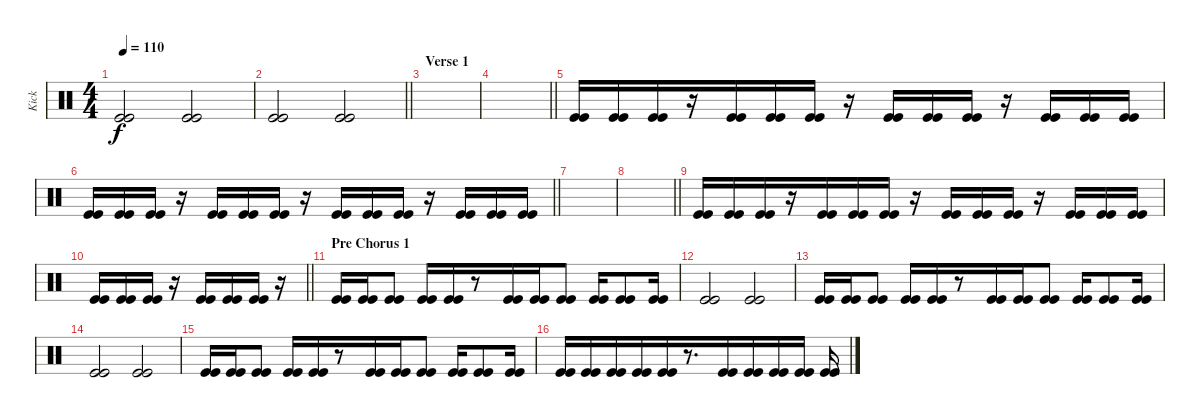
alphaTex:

\track ("Kick" "Kick") {instrument percussion}
\staff {score}
\articulation defaults
\ts (4 4)
\tempo 110
\clef neutral
\ks c
("Kick (hit)" "Kick (hit)").2{dy f beam merge} ("Kick (hit)" "Kick (hit)").2 |
\barLineRight lightlight
("Kick (hit)" "Kick (hit)").2{beam merge} ("Kick (hit)" "Kick (hit)").2 |
\section ("" "Verse 1")
|
\barLineRight lightlight
|
("Kick (hit)" "Kick (hit)").16 ("Kick (hit)" "Kick (hit)").16 ("Kick (hit)" "Kick (hit)").16{beam merge} r.16 ("Kick (hit)" "Kick (hit)").16 ("Kick (hit)" "Kick (hit)").16 ("Kick (hit)" "Kick (hit)").16 r.16 ("Kick (hit)" "Kick (hit)").16{beam merge} ("Kick (hit)" "Kick (hit)").16 ("Kick (hit)" "Kick (hit)").16 r.16{beam merge} ("Kick (hit)" "Kick (hit)").16{beam merge} ("Kick (hit)" "Kick (hit)").16 ("Kick (hit)" "Kick (hit)").16 |
\barLineRight lightlight
("Kick (hit)" "Kick (hit)").16{beam merge} ("Kick (hit)" "Kick (hit)").16{beam merge} ("Kick (hit)" "Kick (hit)").16 r.16 ("Kick (hit)" "Kick (hit)").16 ("Kick (hit)" "Kick (hit)").16{beam merge} ("Kick (hit)" "Kick (hit)").16 r.16 ("Kick (hit)" "Kick (hit)").16 ("Kick (hit)" "Kick (hit)").16{beam merge} ("Kick (hit)" "Kick (hit)").16 r.16 ("Kick (hit)" "Kick (hit)").16 ("Kick (hit)" "Kick (hit)").16{beam merge} ("Kick (hit)" "Kick (hit)").16 |
|
\barLineRight lightlight
|
("Kick (hit)" "Kick (hit)").16 ("Kick (hit)" "Kick (hit)").16 ("Kick (hit)" "Kick (hit)").16{beam merge} r.16 ("Kick (hit)" "Kick (hit)").16 ("Kick (hit)" "Kick (hit)").16 ("Kick (hit)" "Kick (hit)").16 r.16 ("Kick (hit)" "Kick (hit)").16{beam merge} ("Kick (hit)" "Kick (hit)").16 ("Kick (hit)" "Kick (hit)").16 r.16{beam merge} ("Kick (hit)" "Kick (hit)").16{beam merge} ("Kick (hit)" "Kick (hit)").16 ("Kick (hit)" "Kick (hit)").16 |
\barLineRight lightlight
("Kick (hit)" "Kick (hit)").16{beam merge} ("Kick (hit)" "Kick (hit)").16{beam merge} ("Kick (hit)" "Kick (hit)").16 r.16 ("Kick (hit)" "Kick (hit)").16 ("Kick (hit)" "Kick (hit)").16{beam merge} ("Kick (hit)" "Kick (hit)").16 r.16 |
\section ("" "Pre Chorus 1")
("Kick (hit)" "Kick (hit)").16 ("Kick (hit)" "Kick (hit)").16 ("Kick (hit)" "Kick (hit)").8 ("Kick (hit)" "Kick (hit)").16 ("Kick (hit)" "Kick (hit)").16{beam merge} r.8 ("Kick (hit)" "Kick (hit)").16 ("Kick (hit)" "Kick (hit)").16 ("Kick (hit)" "Kick (hit)").8 ("Kick (hit)" "Kick (hit)").16{beam merge} ("Kick (hit)" "Kick (hit)").8{beam merge} ("Kick (hit)" "Kick (hit)").16 |
("Kick (hit)" "Kick (hit)").2 ("Kick (hit)" "Kick (hit)").2 |
("Kick (hit)" "Kick (hit)").16 ("Kick (hit)" "Kick (hit)").16 ("Kick (hit)" "Kick (hit)").8 ("Kick (hit)" "Kick (hit)").16 ("Kick (hit)" "Kick (hit)").16{beam merge} r.8 ("Kick (hit)" "Kick (hit)").16 ("Kick (hit)" "Kick (hit)").16 ("Kick (hit)" "Kick (hit)").8 ("Kick (hit)" "Kick (hit)").16{beam merge} ("Kick (hit)" "Kick (hit)").8{beam merge} ("Kick (hit)" "Kick (hit)").16 |
("Kick (hit)" "Kick (hit)").2 ("Kick (hit)" "Kick (hit)").2 |
("Kick (hit)" "Kick (hit)").16 ("Kick (hit)" "Kick (hit)").16 ("Kick (hit)" "Kick (hit)").8 ("Kick (hit)" "Kick (hit)").16 ("Kick (hit)" "Kick (hit)").16{beam merge} r.8 ("Kick (hit)" "Kick (hit)").16 ("Kick (hit)" "Kick (hit)").16 ("Kick (hit)" "Kick (hit)").8 ("Kick (hit)" "Kick (hit)").16{beam merge} ("Kick (hit)" "Kick (hit)").8{beam merge} ("Kick (hit)" "Kick (hit)").16 |
("Kick (hit)" "Kick (hit)").16 ("Kick (hit)" "Kick (hit)").16{beam merge} ("Kick (hit)" "Kick (hit)").16 ("Kick (hit)" "Kick (hit)").16{beam merge} ("Kick (hit)" "Kick (hit)").16{beam merge} r.8{d} ("Kick (hit)" "Kick (hit)").16{beam merge} ("Kick (hit)" "Kick (hit)").16{beam merge} ("Kick (hit)" "Kick (hit)").16 ("Kick (hit)" "Kick (hit)").16 ("Kick (hit)" "Kick (hit)").16
